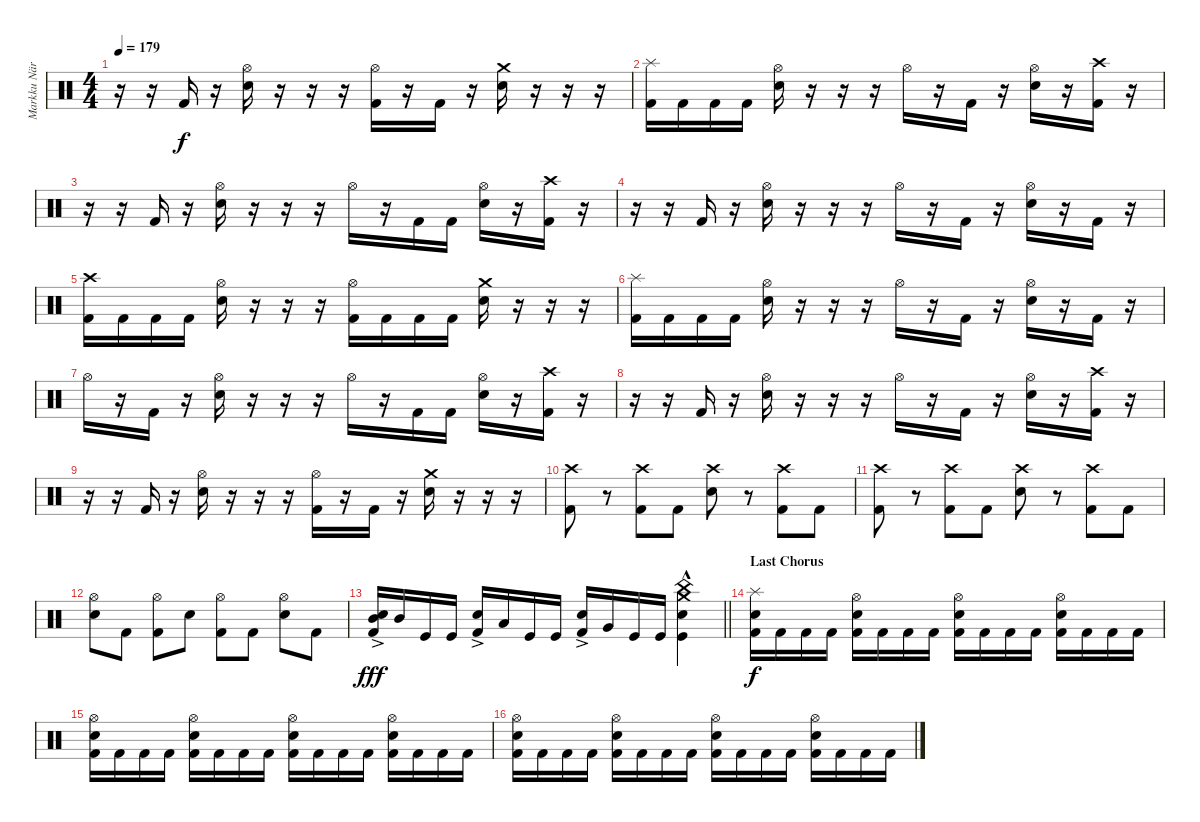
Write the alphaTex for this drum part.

\track ("Markku Näreneva (Drums)" "Markku När") {instrument percussion}
\staff {score}
\articulation defaults
\ts (4 4)
\tempo 179
\clef neutral
\ks c
r.16{dy f} r.16 "Kick (hit) 2".16 r.16 ("Snare (hit) 2" "Hi-Hat (open)").16 r.16 r.16 r.16 ("Kick (hit) 2" "Hi-Hat (open)").16 r.16 "Kick (hit) 2".16 r.16 ("Snare (hit) 2" "Crash medium (hit)").16 r.16 r.16 r.16 |
("Kick (hit) 2" "Splash (hit)").16 "Kick (hit) 2".16 "Kick (hit) 2".16 "Kick (hit) 2".16 ("Snare (hit) 2" "Hi-Hat (open)").16 r.16 r.16 r.16 "Hi-Hat (open)".16 r.16 "Kick (hit) 2".16 r.16 ("Snare (hit) 2" "Hi-Hat (open)").16 r.16 ("Kick (hit) 2" "Crash high (hit)").16 r.16 |
r.16 r.16 "Kick (hit) 2".16 r.16 ("Snare (hit) 2" "Hi-Hat (open)").16 r.16 r.16 r.16 "Hi-Hat (open)".16 r.16 "Kick (hit) 2".16 "Kick (hit) 2".16 ("Snare (hit) 2" "Hi-Hat (open)").16 r.16 ("Kick (hit) 2" "Crash high (hit)").16 r.16 |
r.16 r.16 "Kick (hit) 2".16 r.16 ("Snare (hit) 2" "Hi-Hat (open)").16 r.16 r.16 r.16 "Hi-Hat (open)".16 r.16 "Kick (hit) 2".16 r.16 ("Snare (hit) 2" "Hi-Hat (open)").16 r.16 "Kick (hit) 2".16 r.16 |
("Kick (hit) 2" "Crash high (hit)").16 "Kick (hit) 2".16 "Kick (hit) 2".16 "Kick (hit) 2".16 ("Snare (hit) 2" "Hi-Hat (open)").16 r.16 r.16 r.16 ("Kick (hit) 2" "Hi-Hat (open)").16 "Kick (hit) 2".16 "Kick (hit) 2".16 "Kick (hit) 2".16 ("Snare (hit) 2" "Crash medium (hit)").16 r.16 r.16 r.16 |
("Kick (hit) 2" "Splash (hit)").16 "Kick (hit) 2".16 "Kick (hit) 2".16 "Kick (hit) 2".16 ("Snare (hit) 2" "Hi-Hat (open)").16 r.16 r.16 r.16 "Hi-Hat (open)".16 r.16 "Kick (hit) 2".16 r.16 ("Snare (hit) 2" "Hi-Hat (open)").16 r.16 "Kick (hit) 2".16 r.16 |
"Hi-Hat (open)".16 r.16 "Kick (hit) 2".16 r.16 ("Snare (hit) 2" "Hi-Hat (open)").16 r.16 r.16 r.16 "Hi-Hat (open)".16 r.16 "Kick (hit) 2".16 "Kick (hit) 2".16 ("Snare (hit) 2" "Hi-Hat (open)").16 r.16 ("Kick (hit) 2" "Crash high (hit)").16 r.16 |
r.16 r.16 "Kick (hit) 2".16 r.16 ("Snare (hit) 2" "Hi-Hat (open)").16 r.16 r.16 r.16 "Hi-Hat (open)".16 r.16 "Kick (hit) 2".16 r.16 ("Snare (hit) 2" "Hi-Hat (open)").16 r.16 ("Kick (hit) 2" "Crash high (hit)").16 r.16 |
r.16 r.16 "Kick (hit) 2".16 r.16 ("Snare (hit) 2" "Hi-Hat (open)").16 r.16 r.16 r.16 ("Kick (hit) 2" "Hi-Hat (open)").16 r.16 "Kick (hit) 2".16 r.16 ("Snare (hit) 2" "Crash medium (hit)").16 r.16 r.16 r.16 |
("Kick (hit) 2" "Crash high (hit)").8 r.8 ("Kick (hit) 2" "Crash high (hit)").8 "Kick (hit) 2".8 ("Snare (hit) 2" "Crash high (hit)").8 r.8 ("Kick (hit) 2" "Crash high (hit)").8 "Kick (hit) 2".8 |
("Kick (hit) 2" "Crash high (hit)").8 r.8 ("Kick (hit) 2" "Crash high (hit)").8 "Kick (hit) 2".8 ("Snare (hit) 2" "Crash high (hit)").8 r.8 ("Kick (hit) 2" "Crash high (hit)").8 "Kick (hit) 2".8 |
("Snare (hit) 2" "Hi-Hat (open)").8 "Kick (hit) 2".8 ("Kick (hit) 2" "Hi-Hat (open)").8 "Snare (hit) 2".8 ("Kick (hit) 2" "Hi-Hat (open)").8 "Kick (hit) 2".8 ("Snare (hit) 2" "Hi-Hat (open)").8 "Kick (hit) 2".8 |
\barLineRight lightlight
("Kick (hit) 2"{ac} "Snare (hit) 2"{ac} "Mid Tom (hit)"{ac}).16{dy fff} "Mid Tom (hit)".16 "Kick (hit)".16 "Kick (hit)".16 ("Kick (hit) 2"{ac} "Snare (hit) 2"{ac}).16 "Low Tom (hit)".16 "Kick (hit)".16 "Kick (hit)".16 ("Kick (hit) 2"{ac} "Snare (hit) 2"{ac}).16 "Very Low Tom (hit)".16 "Kick (hit)".16 "Kick (hit)".16 ("China (hit)"{hac} "Kick (hit)"{hac} "Snare (hit) 2"{hac} "Crash medium (hit)"{hac}).4 |
\section ("" "Last Chorus")
("Kick (hit) 2" "Snare (hit) 2" "Splash (hit)").16{dy f} "Kick (hit) 2".16 "Kick (hit) 2".16 "Kick (hit) 2".16 ("Kick (hit) 2" "Snare (hit) 2" "Hi-Hat (open)").16 "Kick (hit) 2".16 "Kick (hit) 2".16 "Kick (hit) 2".16 ("Kick (hit) 2" "Snare (hit) 2" "Hi-Hat (open)").16 "Kick (hit) 2".16 "Kick (hit) 2".16 "Kick (hit) 2".16 ("Kick (hit) 2" "Snare (hit) 2" "Hi-Hat (open)").16 "Kick (hit) 2".16 "Kick (hit) 2".16 "Kick (hit) 2".16 |
("Kick (hit) 2" "Snare (hit) 2" "Hi-Hat (open)").16 "Kick (hit) 2".16 "Kick (hit) 2".16 "Kick (hit) 2".16 ("Kick (hit) 2" "Snare (hit) 2" "Hi-Hat (open)").16 "Kick (hit) 2".16 "Kick (hit) 2".16 "Kick (hit) 2".16 ("Kick (hit) 2" "Snare (hit) 2" "Hi-Hat (open)").16 "Kick (hit) 2".16 "Kick (hit) 2".16 "Kick (hit) 2".16 ("Kick (hit) 2" "Snare (hit) 2" "Hi-Hat (open)").16 "Kick (hit) 2".16 "Kick (hit) 2".16 "Kick (hit) 2".16 |
("Kick (hit) 2" "Snare (hit) 2" "Hi-Hat (open)").16 "Kick (hit) 2".16 "Kick (hit) 2".16 "Kick (hit) 2".16 ("Kick (hit) 2" "Snare (hit) 2" "Hi-Hat (open)").16 "Kick (hit) 2".16 "Kick (hit) 2".16 "Kick (hit) 2".16 ("Kick (hit) 2" "Snare (hit) 2" "Hi-Hat (open)").16 "Kick (hit) 2".16 "Kick (hit) 2".16 "Kick (hit) 2".16 ("Kick (hit) 2" "Snare (hit) 2" "Hi-Hat (open)").16 "Kick (hit) 2".16 "Kick (hit) 2".16 "Kick (hit) 2".16
